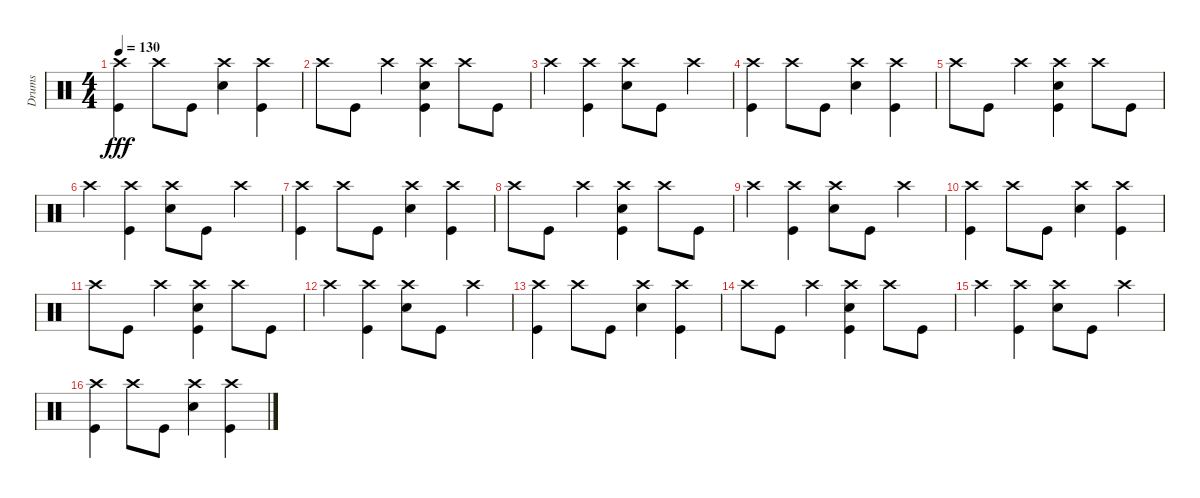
\track ("Drums" "Drums") {instrument percussion}
\staff {score}
\articulation defaults
\ts (4 4)
\tempo 130
\clef neutral
\ks c
("Crash high (hit)" "Kick (hit)").4{dy fff} "Crash high (hit)".8 "Kick (hit)".8 ("Crash high (hit)" "Snare (hit) 2").4 ("Crash high (hit)" "Kick (hit)").4 |
"Crash high (hit)".8 "Kick (hit)".8 "Crash high (hit)".4 ("Crash high (hit)" "Snare (hit) 2" "Kick (hit)").4 "Crash high (hit)".8 "Kick (hit)".8 |
"Crash high (hit)".4 ("Crash high (hit)" "Kick (hit)").4 ("Crash high (hit)" "Snare (hit) 2").8 "Kick (hit)".8 "Crash high (hit)".4 |
("Crash high (hit)" "Kick (hit)").4 "Crash high (hit)".8 "Kick (hit)".8 ("Crash high (hit)" "Snare (hit) 2").4 ("Crash high (hit)" "Kick (hit)").4 |
"Crash high (hit)".8 "Kick (hit)".8 "Crash high (hit)".4 ("Crash high (hit)" "Snare (hit) 2" "Kick (hit)").4 "Crash high (hit)".8 "Kick (hit)".8 |
"Crash high (hit)".4 ("Crash high (hit)" "Kick (hit)").4 ("Crash high (hit)" "Snare (hit) 2").8 "Kick (hit)".8 "Crash high (hit)".4 |
("Crash high (hit)" "Kick (hit)").4 "Crash high (hit)".8 "Kick (hit)".8 ("Crash high (hit)" "Snare (hit) 2").4 ("Crash high (hit)" "Kick (hit)").4 |
"Crash high (hit)".8 "Kick (hit)".8 "Crash high (hit)".4 ("Crash high (hit)" "Snare (hit) 2" "Kick (hit)").4 "Crash high (hit)".8 "Kick (hit)".8 |
"Crash high (hit)".4 ("Crash high (hit)" "Kick (hit)").4 ("Crash high (hit)" "Snare (hit) 2").8 "Kick (hit)".8 "Crash high (hit)".4 |
("Crash high (hit)" "Kick (hit)").4 "Crash high (hit)".8 "Kick (hit)".8 ("Crash high (hit)" "Snare (hit) 2").4 ("Crash high (hit)" "Kick (hit)").4 |
"Crash high (hit)".8 "Kick (hit)".8 "Crash high (hit)".4 ("Crash high (hit)" "Snare (hit) 2" "Kick (hit)").4 "Crash high (hit)".8 "Kick (hit)".8 |
"Crash high (hit)".4 ("Crash high (hit)" "Kick (hit)").4 ("Crash high (hit)" "Snare (hit) 2").8 "Kick (hit)".8 "Crash high (hit)".4 |
("Crash high (hit)" "Kick (hit)").4 "Crash high (hit)".8 "Kick (hit)".8 ("Crash high (hit)" "Snare (hit) 2").4 ("Crash high (hit)" "Kick (hit)").4 |
"Crash high (hit)".8 "Kick (hit)".8 "Crash high (hit)".4 ("Crash high (hit)" "Snare (hit) 2" "Kick (hit)").4 "Crash high (hit)".8 "Kick (hit)".8 |
"Crash high (hit)".4 ("Crash high (hit)" "Kick (hit)").4 ("Crash high (hit)" "Snare (hit) 2").8 "Kick (hit)".8 "Crash high (hit)".4 |
("Crash high (hit)" "Kick (hit)").4 "Crash high (hit)".8 "Kick (hit)".8 ("Crash high (hit)" "Snare (hit) 2").4 ("Crash high (hit)" "Kick (hit)").4
